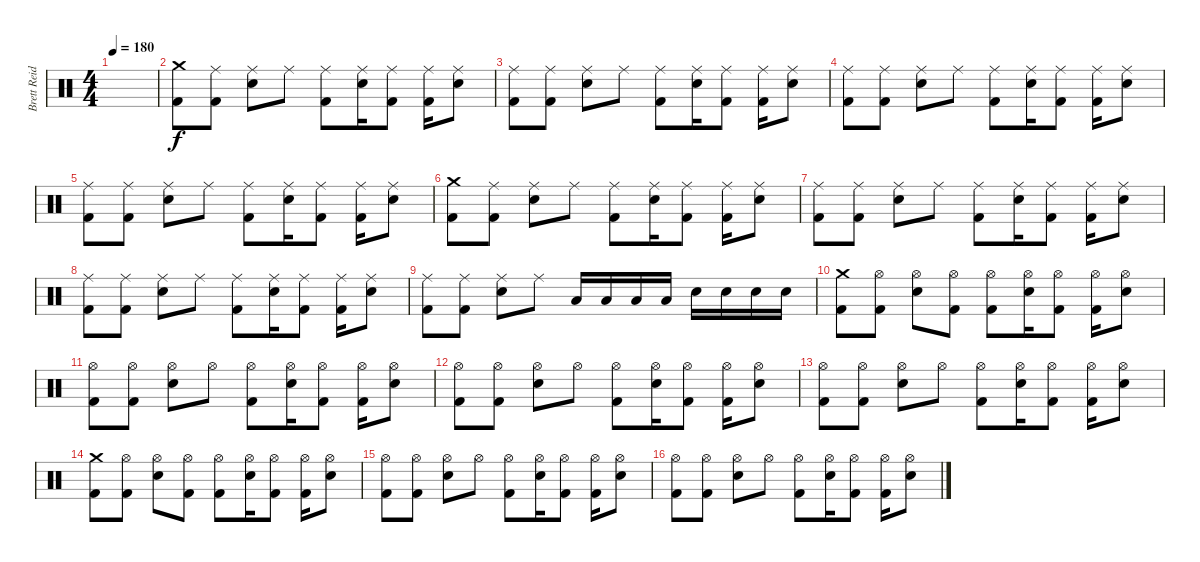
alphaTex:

\track ("Brett Reid" "Brett Reid") {instrument percussion}
\staff {score}
\articulation defaults
\ts (4 4)
\tempo 180
\clef neutral
\ks c
|
("Crash medium (hit)" "Kick (hit) 2").8 ("Ride (middle)" "Kick (hit) 2").8 ("Ride (middle)" "Snare (hit) 2").8 "Ride (middle)".8 ("Ride (middle)" "Kick (hit) 2").8 ("Ride (middle)" "Snare (hit) 2").16 ("Ride (middle)" "Kick (hit) 2").8 ("Ride (middle)" "Kick (hit) 2").16 ("Ride (middle)" "Snare (hit) 2").8 |
("Ride (middle)" "Kick (hit) 2").8 ("Ride (middle)" "Kick (hit) 2").8 ("Ride (middle)" "Snare (hit) 2").8 "Ride (middle)".8 ("Ride (middle)" "Kick (hit) 2").8 ("Ride (middle)" "Snare (hit) 2").16 ("Ride (middle)" "Kick (hit) 2").8 ("Ride (middle)" "Kick (hit) 2").16 ("Ride (middle)" "Snare (hit) 2").8 |
("Ride (middle)" "Kick (hit) 2").8 ("Ride (middle)" "Kick (hit) 2").8 ("Ride (middle)" "Snare (hit) 2").8 "Ride (middle)".8 ("Ride (middle)" "Kick (hit) 2").8 ("Ride (middle)" "Snare (hit) 2").16 ("Ride (middle)" "Kick (hit) 2").8 ("Ride (middle)" "Kick (hit) 2").16 ("Ride (middle)" "Snare (hit) 2").8 |
("Ride (middle)" "Kick (hit) 2").8 ("Ride (middle)" "Kick (hit) 2").8 ("Ride (middle)" "Snare (hit) 2").8 "Ride (middle)".8 ("Ride (middle)" "Kick (hit) 2").8 ("Ride (middle)" "Snare (hit) 2").16 ("Ride (middle)" "Kick (hit) 2").8 ("Ride (middle)" "Kick (hit) 2").16 ("Ride (middle)" "Snare (hit) 2").8 |
("Crash medium (hit)" "Kick (hit) 2").8 ("Ride (middle)" "Kick (hit) 2").8 ("Ride (middle)" "Snare (hit) 2").8 "Ride (middle)".8 ("Ride (middle)" "Kick (hit) 2").8 ("Ride (middle)" "Snare (hit) 2").16 ("Ride (middle)" "Kick (hit) 2").8 ("Ride (middle)" "Kick (hit) 2").16 ("Ride (middle)" "Snare (hit) 2").8 |
("Ride (middle)" "Kick (hit) 2").8 ("Ride (middle)" "Kick (hit) 2").8 ("Ride (middle)" "Snare (hit) 2").8 "Ride (middle)".8 ("Ride (middle)" "Kick (hit) 2").8 ("Ride (middle)" "Snare (hit) 2").16 ("Ride (middle)" "Kick (hit) 2").8 ("Ride (middle)" "Kick (hit) 2").16 ("Ride (middle)" "Snare (hit) 2").8 |
("Ride (middle)" "Kick (hit) 2").8 ("Ride (middle)" "Kick (hit) 2").8 ("Ride (middle)" "Snare (hit) 2").8 "Ride (middle)".8 ("Ride (middle)" "Kick (hit) 2").8 ("Ride (middle)" "Snare (hit) 2").16 ("Ride (middle)" "Kick (hit) 2").8 ("Ride (middle)" "Kick (hit) 2").16 ("Ride (middle)" "Snare (hit) 2").8 |
("Ride (middle)" "Kick (hit) 2").8 ("Ride (middle)" "Kick (hit) 2").8 ("Ride (middle)" "Snare (hit) 2").8 "Ride (middle)".8 "Low Tom (hit)".16 "Low Tom (hit)".16 "Low Tom (hit)".16 "Low Tom (hit)".16 "Snare (hit) 2".16 "Snare (hit) 2".16 "Snare (hit) 2".16 "Snare (hit) 2".16 |
("Crash medium (hit)" "Kick (hit) 2").8 ("Hi-Hat (open)" "Kick (hit) 2").8 ("Hi-Hat (open)" "Snare (hit) 2").8 ("Hi-Hat (open)" "Kick (hit) 2").8 ("Hi-Hat (open)" "Kick (hit) 2").8 ("Hi-Hat (open)" "Snare (hit) 2").16 ("Hi-Hat (open)" "Kick (hit) 2").8 ("Hi-Hat (open)" "Kick (hit) 2").16 ("Hi-Hat (open)" "Snare (hit) 2").8 |
("Hi-Hat (open)" "Kick (hit) 2").8 ("Hi-Hat (open)" "Kick (hit) 2").8 ("Hi-Hat (open)" "Snare (hit) 2").8 "Hi-Hat (open)".8 ("Hi-Hat (open)" "Kick (hit) 2").8 ("Hi-Hat (open)" "Snare (hit) 2").16 ("Hi-Hat (open)" "Kick (hit) 2").8 ("Hi-Hat (open)" "Kick (hit) 2").16 ("Hi-Hat (open)" "Snare (hit) 2").8 |
("Hi-Hat (open)" "Kick (hit) 2").8 ("Hi-Hat (open)" "Kick (hit) 2").8 ("Hi-Hat (open)" "Snare (hit) 2").8 "Hi-Hat (open)".8 ("Hi-Hat (open)" "Kick (hit) 2").8 ("Hi-Hat (open)" "Snare (hit) 2").16 ("Hi-Hat (open)" "Kick (hit) 2").8 ("Hi-Hat (open)" "Kick (hit) 2").16 ("Hi-Hat (open)" "Snare (hit) 2").8 |
("Hi-Hat (open)" "Kick (hit) 2").8 ("Hi-Hat (open)" "Kick (hit) 2").8 ("Hi-Hat (open)" "Snare (hit) 2").8 "Hi-Hat (open)".8 ("Hi-Hat (open)" "Kick (hit) 2").8 ("Hi-Hat (open)" "Snare (hit) 2").16 ("Hi-Hat (open)" "Kick (hit) 2").8 ("Hi-Hat (open)" "Kick (hit) 2").16 ("Hi-Hat (open)" "Snare (hit) 2").8 |
("Crash medium (hit)" "Kick (hit) 2").8 ("Hi-Hat (open)" "Kick (hit) 2").8 ("Hi-Hat (open)" "Snare (hit) 2").8 ("Hi-Hat (open)" "Kick (hit) 2").8 ("Hi-Hat (open)" "Kick (hit) 2").8 ("Hi-Hat (open)" "Snare (hit) 2").16 ("Hi-Hat (open)" "Kick (hit) 2").8 ("Hi-Hat (open)" "Kick (hit) 2").16 ("Hi-Hat (open)" "Snare (hit) 2").8 |
("Hi-Hat (open)" "Kick (hit) 2").8 ("Hi-Hat (open)" "Kick (hit) 2").8 ("Hi-Hat (open)" "Snare (hit) 2").8 "Hi-Hat (open)".8 ("Hi-Hat (open)" "Kick (hit) 2").8 ("Hi-Hat (open)" "Snare (hit) 2").16 ("Hi-Hat (open)" "Kick (hit) 2").8 ("Hi-Hat (open)" "Kick (hit) 2").16 ("Hi-Hat (open)" "Snare (hit) 2").8 |
("Hi-Hat (open)" "Kick (hit) 2").8 ("Hi-Hat (open)" "Kick (hit) 2").8 ("Hi-Hat (open)" "Snare (hit) 2").8 "Hi-Hat (open)".8 ("Hi-Hat (open)" "Kick (hit) 2").8 ("Hi-Hat (open)" "Snare (hit) 2").16 ("Hi-Hat (open)" "Kick (hit) 2").8 ("Hi-Hat (open)" "Kick (hit) 2").16 ("Hi-Hat (open)" "Snare (hit) 2").8
